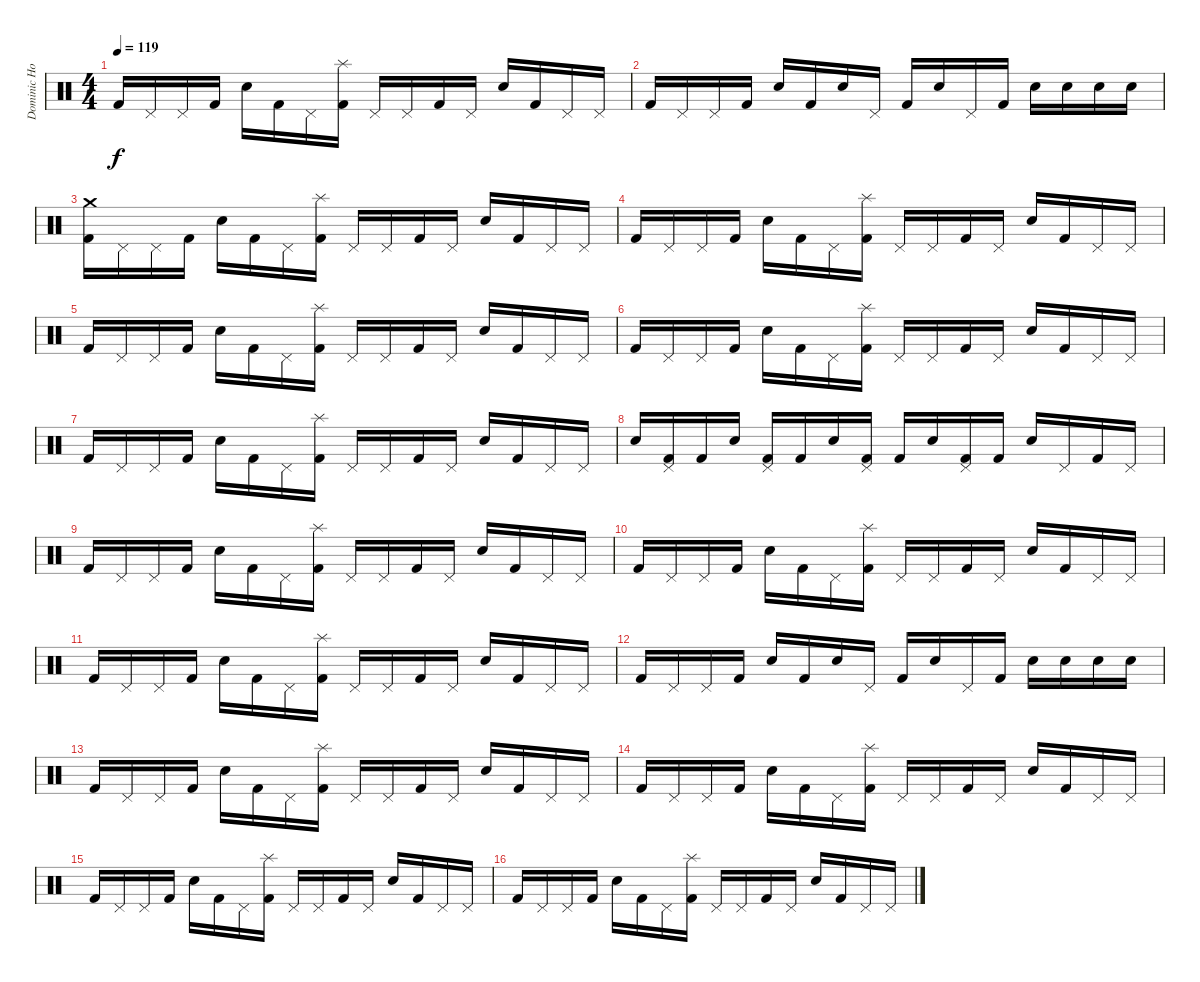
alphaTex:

\track ("Dominic Howard" "Dominic Ho") {instrument percussion}
\staff {score}
\articulation defaults
\ts (4 4)
\tempo 119
\clef neutral
\ks c "Kick (hit) 2".16{dy f} "Pedal Hi-Hat (hit)".16 "Pedal Hi-Hat (hit)".16 "Kick (hit) 2".16 "Electric Snare (hit)".16 "Kick (hit) 2".16 "Pedal Hi-Hat (hit)".16
("Splash (hit)" "Kick (hit) 2").16 "Pedal Hi-Hat (hit)".16 "Pedal Hi-Hat (hit)".16 "Kick (hit) 2".16 "Pedal Hi-Hat (hit)".16 "Electric Snare (hit)".16 "Kick (hit) 2".16 "Pedal Hi-Hat (hit)".16 "Pedal Hi-Hat (hit)".16 |
"Kick (hit) 2".16 "Pedal Hi-Hat (hit)".16 "Pedal Hi-Hat (hit)".16 "Kick (hit) 2".16 "Electric Snare (hit)".16 "Kick (hit) 2".16 "Electric Snare (hit)".16 "Pedal Hi-Hat (hit)".16 "Kick (hit) 2".16 "Electric Snare (hit)".16 "Pedal Hi-Hat (hit)".16 "Kick (hit) 2".16 "Electric Snare (hit)".16 "Electric Snare (hit)".16 "Electric Snare (hit)".16 "Electric Snare (hit)".16 |
("Crash medium (hit)" "Kick (hit) 2").16 "Pedal Hi-Hat (hit)".16 "Pedal Hi-Hat (hit)".16 "Kick (hit) 2".16 "Electric Snare (hit)".16 "Kick (hit) 2".16 "Pedal Hi-Hat (hit)".16 ("Splash (hit)" "Kick (hit) 2").16 "Pedal Hi-Hat (hit)".16 "Pedal Hi-Hat (hit)".16 "Kick (hit) 2".16 "Pedal Hi-Hat (hit)".16 "Electric Snare (hit)".16 "Kick (hit) 2".16 "Pedal Hi-Hat (hit)".16 "Pedal Hi-Hat (hit)".16 |
"Kick (hit) 2".16 "Pedal Hi-Hat (hit)".16 "Pedal Hi-Hat (hit)".16 "Kick (hit) 2".16 "Electric Snare (hit)".16 "Kick (hit) 2".16 "Pedal Hi-Hat (hit)".16 ("Splash (hit)" "Kick (hit) 2").16 "Pedal Hi-Hat (hit)".16 "Pedal Hi-Hat (hit)".16 "Kick (hit) 2".16 "Pedal Hi-Hat (hit)".16 "Electric Snare (hit)".16 "Kick (hit) 2".16 "Pedal Hi-Hat (hit)".16 "Pedal Hi-Hat (hit)".16 |
"Kick (hit) 2".16 "Pedal Hi-Hat (hit)".16 "Pedal Hi-Hat (hit)".16 "Kick (hit) 2".16 "Electric Snare (hit)".16 "Kick (hit) 2".16 "Pedal Hi-Hat (hit)".16 ("Splash (hit)" "Kick (hit) 2").16 "Pedal Hi-Hat (hit)".16 "Pedal Hi-Hat (hit)".16 "Kick (hit) 2".16 "Pedal Hi-Hat (hit)".16 "Electric Snare (hit)".16 "Kick (hit) 2".16 "Pedal Hi-Hat (hit)".16 "Pedal Hi-Hat (hit)".16 |
"Kick (hit) 2".16 "Pedal Hi-Hat (hit)".16 "Pedal Hi-Hat (hit)".16 "Kick (hit) 2".16 "Electric Snare (hit)".16 "Kick (hit) 2".16 "Pedal Hi-Hat (hit)".16 ("Splash (hit)" "Kick (hit) 2").16 "Pedal Hi-Hat (hit)".16 "Pedal Hi-Hat (hit)".16 "Kick (hit) 2".16 "Pedal Hi-Hat (hit)".16 "Electric Snare (hit)".16 "Kick (hit) 2".16 "Pedal Hi-Hat (hit)".16 "Pedal Hi-Hat (hit)".16 |
"Kick (hit) 2".16 "Pedal Hi-Hat (hit)".16 "Pedal Hi-Hat (hit)".16 "Kick (hit) 2".16 "Electric Snare (hit)".16 "Kick (hit) 2".16 "Pedal Hi-Hat (hit)".16 ("Splash (hit)" "Kick (hit) 2").16 "Pedal Hi-Hat (hit)".16 "Pedal Hi-Hat (hit)".16 "Kick (hit) 2".16 "Pedal Hi-Hat (hit)".16 "Electric Snare (hit)".16 "Kick (hit) 2".16 "Pedal Hi-Hat (hit)".16 "Pedal Hi-Hat (hit)".16 |
"Electric Snare (hit)".16 ("Pedal Hi-Hat (hit)" "Kick (hit) 2").16 "Kick (hit) 2".16 "Electric Snare (hit)".16 ("Pedal Hi-Hat (hit)" "Kick (hit) 2").16 "Kick (hit) 2".16 "Electric Snare (hit)".16 ("Pedal Hi-Hat (hit)" "Kick (hit) 2").16 "Kick (hit) 2".16 "Electric Snare (hit)".16 ("Pedal Hi-Hat (hit)" "Kick (hit) 2").16 "Kick (hit) 2".16 "Electric Snare (hit)".16 "Pedal Hi-Hat (hit)".16 "Kick (hit) 2".16 "Pedal Hi-Hat (hit)".16 |
"Kick (hit) 2".16 "Pedal Hi-Hat (hit)".16 "Pedal Hi-Hat (hit)".16 "Kick (hit) 2".16 "Electric Snare (hit)".16 "Kick (hit) 2".16 "Pedal Hi-Hat (hit)".16 ("Splash (hit)" "Kick (hit) 2").16 "Pedal Hi-Hat (hit)".16 "Pedal Hi-Hat (hit)".16 "Kick (hit) 2".16 "Pedal Hi-Hat (hit)".16 "Electric Snare (hit)".16 "Kick (hit) 2".16 "Pedal Hi-Hat (hit)".16 "Pedal Hi-Hat (hit)".16 |
"Kick (hit) 2".16 "Pedal Hi-Hat (hit)".16 "Pedal Hi-Hat (hit)".16 "Kick (hit) 2".16 "Electric Snare (hit)".16 "Kick (hit) 2".16 "Pedal Hi-Hat (hit)".16 ("Splash (hit)" "Kick (hit) 2").16 "Pedal Hi-Hat (hit)".16 "Pedal Hi-Hat (hit)".16 "Kick (hit) 2".16 "Pedal Hi-Hat (hit)".16 "Electric Snare (hit)".16 "Kick (hit) 2".16 "Pedal Hi-Hat (hit)".16 "Pedal Hi-Hat (hit)".16 |
"Kick (hit) 2".16 "Pedal Hi-Hat (hit)".16 "Pedal Hi-Hat (hit)".16 "Kick (hit) 2".16 "Electric Snare (hit)".16 "Kick (hit) 2".16 "Pedal Hi-Hat (hit)".16 ("Splash (hit)" "Kick (hit) 2").16 "Pedal Hi-Hat (hit)".16 "Pedal Hi-Hat (hit)".16 "Kick (hit) 2".16 "Pedal Hi-Hat (hit)".16 "Electric Snare (hit)".16 "Kick (hit) 2".16 "Pedal Hi-Hat (hit)".16 "Pedal Hi-Hat (hit)".16 |
"Kick (hit) 2".16 "Pedal Hi-Hat (hit)".16 "Pedal Hi-Hat (hit)".16 "Kick (hit) 2".16 "Electric Snare (hit)".16 "Kick (hit) 2".16 "Electric Snare (hit)".16 "Pedal Hi-Hat (hit)".16 "Kick (hit) 2".16 "Electric Snare (hit)".16 "Pedal Hi-Hat (hit)".16 "Kick (hit) 2".16 "Electric Snare (hit)".16 "Electric Snare (hit)".16 "Electric Snare (hit)".16 "Electric Snare (hit)".16 |
"Kick (hit) 2".16 "Pedal Hi-Hat (hit)".16 "Pedal Hi-Hat (hit)".16 "Kick (hit) 2".16 "Electric Snare (hit)".16 "Kick (hit) 2".16 "Pedal Hi-Hat (hit)".16 ("Splash (hit)" "Kick (hit) 2").16 "Pedal Hi-Hat (hit)".16 "Pedal Hi-Hat (hit)".16 "Kick (hit) 2".16 "Pedal Hi-Hat (hit)".16 "Electric Snare (hit)".16 "Kick (hit) 2".16 "Pedal Hi-Hat (hit)".16 "Pedal Hi-Hat (hit)".16 |
"Kick (hit) 2".16 "Pedal Hi-Hat (hit)".16 "Pedal Hi-Hat (hit)".16 "Kick (hit) 2".16 "Electric Snare (hit)".16 "Kick (hit) 2".16 "Pedal Hi-Hat (hit)".16 ("Splash (hit)" "Kick (hit) 2").16 "Pedal Hi-Hat (hit)".16 "Pedal Hi-Hat (hit)".16 "Kick (hit) 2".16 "Pedal Hi-Hat (hit)".16 "Electric Snare (hit)".16 "Kick (hit) 2".16 "Pedal Hi-Hat (hit)".16 "Pedal Hi-Hat (hit)".16 |
"Kick (hit) 2".16 "Pedal Hi-Hat (hit)".16 "Pedal Hi-Hat (hit)".16 "Kick (hit) 2".16 "Electric Snare (hit)".16 "Kick (hit) 2".16 "Pedal Hi-Hat (hit)".16 ("Splash (hit)" "Kick (hit) 2").16 "Pedal Hi-Hat (hit)".16 "Pedal Hi-Hat (hit)".16 "Kick (hit) 2".16 "Pedal Hi-Hat (hit)".16 "Electric Snare (hit)".16 "Kick (hit) 2".16 "Pedal Hi-Hat (hit)".16 "Pedal Hi-Hat (hit)".16 |
"Kick (hit) 2".16 "Pedal Hi-Hat (hit)".16 "Pedal Hi-Hat (hit)".16 "Kick (hit) 2".16 "Electric Snare (hit)".16 "Kick (hit) 2".16 "Pedal Hi-Hat (hit)".16 ("Splash (hit)" "Kick (hit) 2").16 "Pedal Hi-Hat (hit)".16 "Pedal Hi-Hat (hit)".16 "Kick (hit) 2".16 "Pedal Hi-Hat (hit)".16 "Electric Snare (hit)".16 "Kick (hit) 2".16 "Pedal Hi-Hat (hit)".16 "Pedal Hi-Hat (hit)".16
